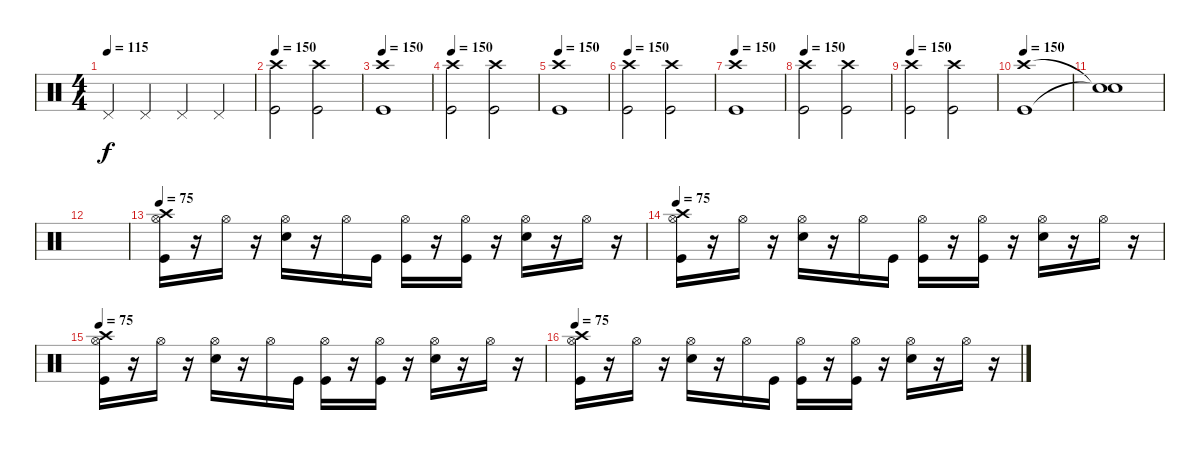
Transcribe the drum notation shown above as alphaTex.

\track "" {instrument percussion}
\staff {score}
\articulation defaults
\ts (4 4)
\tempo 115
\clef neutral
\ks c "Pedal Hi-Hat (hit)".4{dy f} "Pedal Hi-Hat (hit)".4 "Pedal Hi-Hat (hit)".4 "Pedal Hi-Hat (hit)".4
|
\tempo 150
("Crash high (hit)" "Kick (hit)").2 ("Crash high (hit)" "Kick (hit)").2 |
\tempo 150
("Kick (hit)" "Crash high (hit)").1 |
\tempo 150
("Crash high (hit)" "Kick (hit)").2 ("Crash high (hit)" "Kick (hit)").2 |
\tempo 150
("Kick (hit)" "Crash high (hit)").1 |
\tempo 150
("Crash high (hit)" "Kick (hit)").2 ("Crash high (hit)" "Kick (hit)").2 |
\tempo 150
("Kick (hit)" "Crash high (hit)").1 |
\tempo 150
("Crash high (hit)" "Kick (hit)").2 ("Crash high (hit)" "Kick (hit)").2 |
\tempo 150
("Crash high (hit)" "Kick (hit)").2 ("Crash high (hit)" "Kick (hit)").2 |
\tempo 150
("Kick (hit)" "Crash high (hit)").1 |
("Snare (hit)"{t} "Snare (hit)"{t}).1 |
|
\tempo 75
("Hi-Hat (open)" "Kick (hit)" "Crash high (hit)").16 r.16 "Hi-Hat (open)".16 r.16 ("Hi-Hat (open)" "Snare (hit) 2").16 r.16 "Hi-Hat (open)".16 "Kick (hit)".16 ("Hi-Hat (open)" "Kick (hit)").16 r.16 ("Hi-Hat (open)" "Kick (hit)").16 r.16 ("Hi-Hat (open)" "Snare (hit) 2").16 r.16 "Hi-Hat (open)".16 r.16 |
\tempo 75
("Hi-Hat (open)" "Kick (hit)" "Crash high (hit)").16 r.16 "Hi-Hat (open)".16 r.16 ("Hi-Hat (open)" "Snare (hit) 2").16 r.16 "Hi-Hat (open)".16 "Kick (hit)".16 ("Hi-Hat (open)" "Kick (hit)").16 r.16 ("Hi-Hat (open)" "Kick (hit)").16 r.16 ("Hi-Hat (open)" "Snare (hit) 2").16 r.16 "Hi-Hat (open)".16 r.16 |
\tempo 75
("Hi-Hat (open)" "Kick (hit)" "Crash high (hit)").16 r.16 "Hi-Hat (open)".16 r.16 ("Hi-Hat (open)" "Snare (hit) 2").16 r.16 "Hi-Hat (open)".16 "Kick (hit)".16 ("Hi-Hat (open)" "Kick (hit)").16 r.16 ("Hi-Hat (open)" "Kick (hit)").16 r.16 ("Hi-Hat (open)" "Snare (hit) 2").16 r.16 "Hi-Hat (open)".16 r.16 |
\tempo 75
("Hi-Hat (open)" "Kick (hit)" "Crash high (hit)").16 r.16 "Hi-Hat (open)".16 r.16 ("Hi-Hat (open)" "Snare (hit) 2").16 r.16 "Hi-Hat (open)".16 "Kick (hit)".16 ("Hi-Hat (open)" "Kick (hit)").16 r.16 ("Hi-Hat (open)" "Kick (hit)").16 r.16 ("Hi-Hat (open)" "Snare (hit) 2").16 r.16 "Hi-Hat (open)".16 r.16
